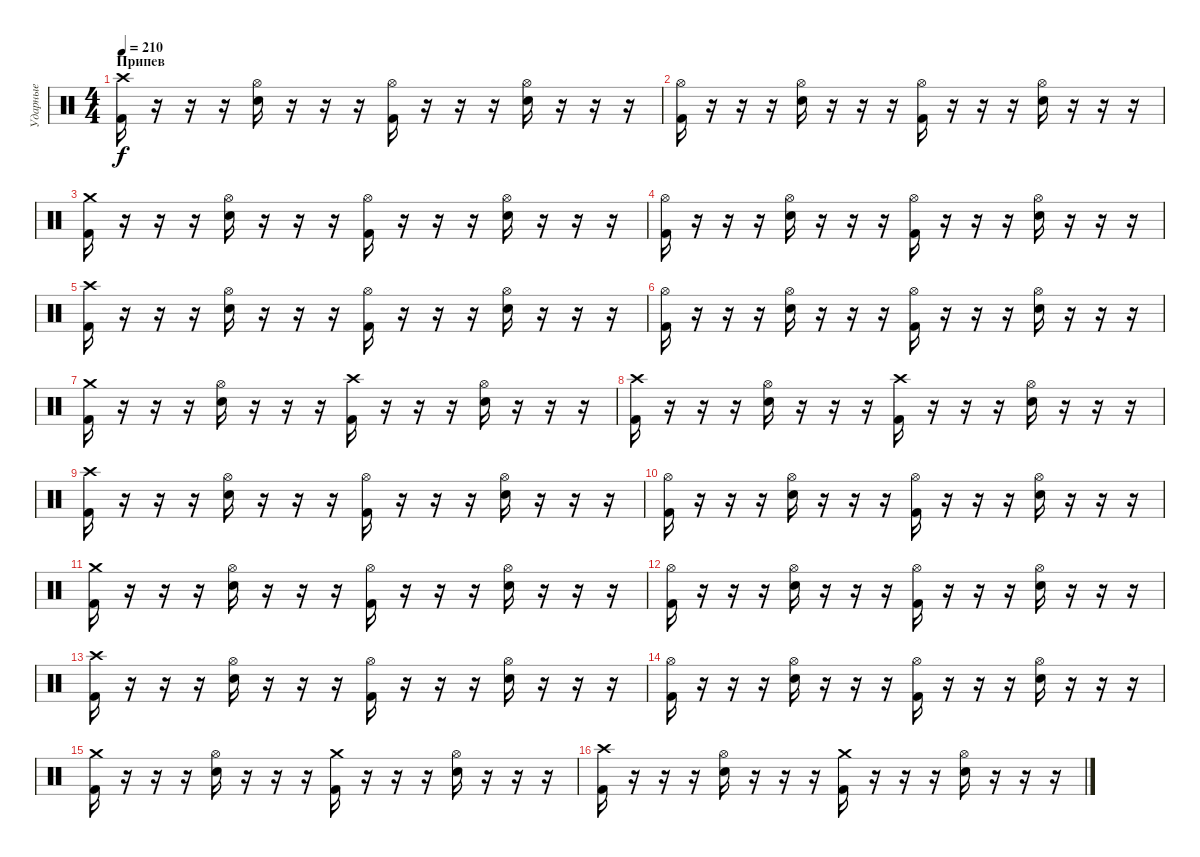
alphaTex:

\track ("Ударные" "Ударные") {instrument percussion}
\staff {score}
\articulation defaults
\ts (4 4)
\section ("" "Припев")
\tempo 210
\clef neutral
\ks c
("Kick (hit) 2" "Crash high (hit)").16{dy f} r.16 r.16 r.16 ("Electric Snare (hit)" "Hi-Hat (open)").16 r.16 r.16 r.16 ("Kick (hit) 2" "Hi-Hat (open)").16 r.16 r.16 r.16 ("Electric Snare (hit)" "Hi-Hat (open)").16 r.16 r.16 r.16 |
("Kick (hit) 2" "Hi-Hat (open)").16 r.16 r.16 r.16 ("Electric Snare (hit)" "Hi-Hat (open)").16 r.16 r.16 r.16 ("Kick (hit) 2" "Hi-Hat (open)").16 r.16 r.16 r.16 ("Electric Snare (hit)" "Hi-Hat (open)").16 r.16 r.16 r.16 |
("Kick (hit) 2" "Crash medium (hit)").16 r.16 r.16 r.16 ("Electric Snare (hit)" "Hi-Hat (open)").16 r.16 r.16 r.16 ("Kick (hit) 2" "Hi-Hat (open)").16 r.16 r.16 r.16 ("Electric Snare (hit)" "Hi-Hat (open)").16 r.16 r.16 r.16 |
("Kick (hit) 2" "Hi-Hat (open)").16 r.16 r.16 r.16 ("Electric Snare (hit)" "Hi-Hat (open)").16 r.16 r.16 r.16 ("Kick (hit) 2" "Hi-Hat (open)").16 r.16 r.16 r.16 ("Electric Snare (hit)" "Hi-Hat (open)").16 r.16 r.16 r.16 |
("Kick (hit) 2" "Crash high (hit)").16 r.16 r.16 r.16 ("Electric Snare (hit)" "Hi-Hat (open)").16 r.16 r.16 r.16 ("Kick (hit) 2" "Hi-Hat (open)").16 r.16 r.16 r.16 ("Electric Snare (hit)" "Hi-Hat (open)").16 r.16 r.16 r.16 |
("Kick (hit) 2" "Hi-Hat (open)").16 r.16 r.16 r.16 ("Electric Snare (hit)" "Hi-Hat (open)").16 r.16 r.16 r.16 ("Kick (hit) 2" "Hi-Hat (open)").16 r.16 r.16 r.16 ("Electric Snare (hit)" "Hi-Hat (open)").16 r.16 r.16 r.16 |
("Kick (hit) 2" "Crash medium (hit)").16 r.16 r.16 r.16 ("Electric Snare (hit)" "Hi-Hat (open)").16 r.16 r.16 r.16 ("Crash high (hit)" "Kick (hit) 2").16 r.16 r.16 r.16 ("Electric Snare (hit)" "Hi-Hat (open)").16 r.16 r.16 r.16 |
("Kick (hit) 2" "Crash high (hit)").16 r.16 r.16 r.16 ("Electric Snare (hit)" "Hi-Hat (open)").16 r.16 r.16 r.16 ("Kick (hit) 2" "Crash high (hit)").16 r.16 r.16 r.16 ("Electric Snare (hit)" "Hi-Hat (open)").16 r.16 r.16 r.16 |
("Kick (hit) 2" "Crash high (hit)").16 r.16 r.16 r.16 ("Electric Snare (hit)" "Hi-Hat (open)").16 r.16 r.16 r.16 ("Kick (hit) 2" "Hi-Hat (open)").16 r.16 r.16 r.16 ("Electric Snare (hit)" "Hi-Hat (open)").16 r.16 r.16 r.16 |
("Kick (hit) 2" "Hi-Hat (open)").16 r.16 r.16 r.16 ("Electric Snare (hit)" "Hi-Hat (open)").16 r.16 r.16 r.16 ("Kick (hit) 2" "Hi-Hat (open)").16 r.16 r.16 r.16 ("Electric Snare (hit)" "Hi-Hat (open)").16 r.16 r.16 r.16 |
("Kick (hit) 2" "Crash medium (hit)").16 r.16 r.16 r.16 ("Electric Snare (hit)" "Hi-Hat (open)").16 r.16 r.16 r.16 ("Kick (hit) 2" "Hi-Hat (open)").16 r.16 r.16 r.16 ("Electric Snare (hit)" "Hi-Hat (open)").16 r.16 r.16 r.16 |
("Kick (hit) 2" "Hi-Hat (open)").16 r.16 r.16 r.16 ("Electric Snare (hit)" "Hi-Hat (open)").16 r.16 r.16 r.16 ("Kick (hit) 2" "Hi-Hat (open)").16 r.16 r.16 r.16 ("Electric Snare (hit)" "Hi-Hat (open)").16 r.16 r.16 r.16 |
("Kick (hit) 2" "Crash high (hit)").16 r.16 r.16 r.16 ("Electric Snare (hit)" "Hi-Hat (open)").16 r.16 r.16 r.16 ("Kick (hit) 2" "Hi-Hat (open)").16 r.16 r.16 r.16 ("Electric Snare (hit)" "Hi-Hat (open)").16 r.16 r.16 r.16 |
("Kick (hit) 2" "Hi-Hat (open)").16 r.16 r.16 r.16 ("Electric Snare (hit)" "Hi-Hat (open)").16 r.16 r.16 r.16 ("Kick (hit) 2" "Hi-Hat (open)").16 r.16 r.16 r.16 ("Electric Snare (hit)" "Hi-Hat (open)").16 r.16 r.16 r.16 |
("Kick (hit) 2" "Crash medium (hit)").16 r.16 r.16 r.16 ("Electric Snare (hit)" "Hi-Hat (open)").16 r.16 r.16 r.16 ("Crash medium (hit)" "Kick (hit) 2").16 r.16 r.16 r.16 ("Electric Snare (hit)" "Hi-Hat (open)").16 r.16 r.16 r.16 |
("Kick (hit) 2" "Crash high (hit)").16 r.16 r.16 r.16 ("Electric Snare (hit)" "Hi-Hat (open)").16 r.16 r.16 r.16 ("Kick (hit) 2" "Crash medium (hit)").16 r.16 r.16 r.16 ("Electric Snare (hit)" "Hi-Hat (open)").16 r.16 r.16 r.16
